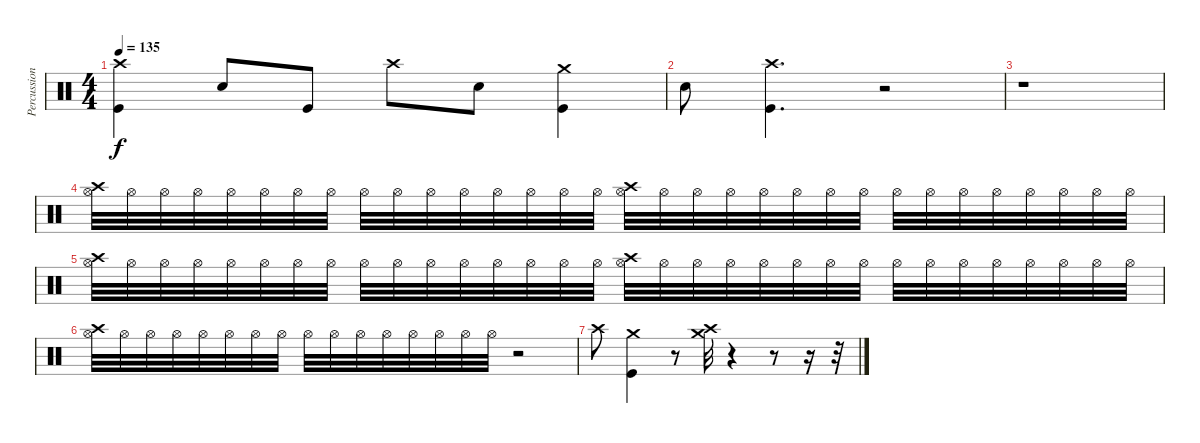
\track ("Percussions" "Percussion") {instrument percussion}
\staff {score}
\articulation defaults
\ts (4 4)
\tempo 135
\clef neutral
\ks c
("Kick (hit)" "Crash high (hit)").4{dy f} "Snare (hit) 2".8 "Kick (hit)".8 "Crash high (hit)".8 "Snare (hit) 2".8 ("Kick (hit)" "Crash medium (hit)").4 |
"Snare (hit) 2".8 ("Crash high (hit)" "Kick (hit)").4{d} r.2 |
r.1 |
("Crash high (hit)" "Hi-Hat (open)").32 "Hi-Hat (open)".32 "Hi-Hat (open)".32 "Hi-Hat (open)".32 "Hi-Hat (open)".32 "Hi-Hat (open)".32 "Hi-Hat (open)".32 "Hi-Hat (open)".32 "Hi-Hat (open)".32 "Hi-Hat (open)".32 "Hi-Hat (open)".32 "Hi-Hat (open)".32 "Hi-Hat (open)".32 "Hi-Hat (open)".32 "Hi-Hat (open)".32 "Hi-Hat (open)".32 ("Crash high (hit)" "Hi-Hat (open)").32 "Hi-Hat (open)".32 "Hi-Hat (open)".32 "Hi-Hat (open)".32 "Hi-Hat (open)".32 "Hi-Hat (open)".32 "Hi-Hat (open)".32 "Hi-Hat (open)".32 "Hi-Hat (open)".32 "Hi-Hat (open)".32 "Hi-Hat (open)".32 "Hi-Hat (open)".32 "Hi-Hat (open)".32 "Hi-Hat (open)".32 "Hi-Hat (open)".32 "Hi-Hat (open)".32 |
("Crash high (hit)" "Hi-Hat (open)").32 "Hi-Hat (open)".32 "Hi-Hat (open)".32 "Hi-Hat (open)".32 "Hi-Hat (open)".32 "Hi-Hat (open)".32 "Hi-Hat (open)".32 "Hi-Hat (open)".32 "Hi-Hat (open)".32 "Hi-Hat (open)".32 "Hi-Hat (open)".32 "Hi-Hat (open)".32 "Hi-Hat (open)".32 "Hi-Hat (open)".32 "Hi-Hat (open)".32 "Hi-Hat (open)".32 ("Crash high (hit)" "Hi-Hat (open)").32 "Hi-Hat (open)".32 "Hi-Hat (open)".32 "Hi-Hat (open)".32 "Hi-Hat (open)".32 "Hi-Hat (open)".32 "Hi-Hat (open)".32 "Hi-Hat (open)".32 "Hi-Hat (open)".32 "Hi-Hat (open)".32 "Hi-Hat (open)".32 "Hi-Hat (open)".32 "Hi-Hat (open)".32 "Hi-Hat (open)".32 "Hi-Hat (open)".32 "Hi-Hat (open)".32 |
("Crash high (hit)" "Hi-Hat (open)").32 "Hi-Hat (open)".32 "Hi-Hat (open)".32 "Hi-Hat (open)".32 "Hi-Hat (open)".32 "Hi-Hat (open)".32 "Hi-Hat (open)".32 "Hi-Hat (open)".32 "Hi-Hat (open)".32 "Hi-Hat (open)".32 "Hi-Hat (open)".32 "Hi-Hat (open)".32 "Hi-Hat (open)".32 "Hi-Hat (open)".32 "Hi-Hat (open)".32 "Hi-Hat (open)".32 r.2 |
"Crash high (hit)".8 ("Kick (hit)" "Crash medium (hit)").4 r.8 ("Crash medium (hit)" "Crash high (hit)").32 r.4 r.8 r.16 r.32
